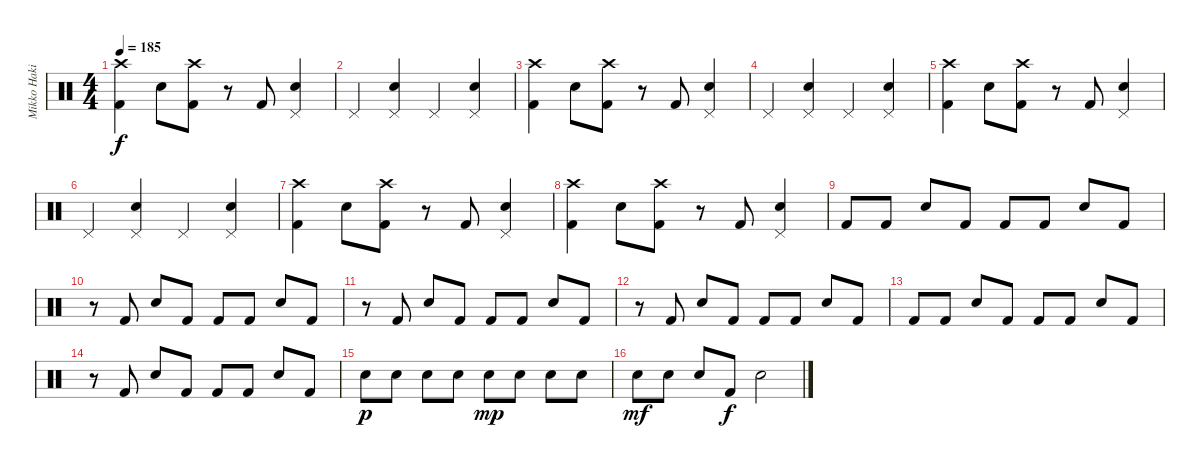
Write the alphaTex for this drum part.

\track ("Mikko Hakila" "Mikko Haki") {instrument percussion}
\staff {score}
\articulation defaults
\ts (4 4)
\tempo 185
\clef neutral
\ks c
("Crash high (hit)" "Kick (hit) 2").4{dy f} "Snare (hit) 2".8 ("Crash high (hit)" "Kick (hit) 2").8 r.8 "Kick (hit) 2".8 ("Pedal Hi-Hat (hit)" "Snare (hit) 2").4 |
"Pedal Hi-Hat (hit)".4 ("Pedal Hi-Hat (hit)" "Snare (hit) 2").4 "Pedal Hi-Hat (hit)".4 ("Pedal Hi-Hat (hit)" "Snare (hit) 2").4 |
("Crash high (hit)" "Kick (hit) 2").4 "Snare (hit) 2".8 ("Crash high (hit)" "Kick (hit) 2").8 r.8 "Kick (hit) 2".8 ("Pedal Hi-Hat (hit)" "Snare (hit) 2").4 |
"Pedal Hi-Hat (hit)".4 ("Pedal Hi-Hat (hit)" "Snare (hit) 2").4 "Pedal Hi-Hat (hit)".4 ("Pedal Hi-Hat (hit)" "Snare (hit) 2").4 |
("Crash high (hit)" "Kick (hit) 2").4 "Snare (hit) 2".8 ("Crash high (hit)" "Kick (hit) 2").8 r.8 "Kick (hit) 2".8 ("Pedal Hi-Hat (hit)" "Snare (hit) 2").4 |
"Pedal Hi-Hat (hit)".4 ("Pedal Hi-Hat (hit)" "Snare (hit) 2").4 "Pedal Hi-Hat (hit)".4 ("Pedal Hi-Hat (hit)" "Snare (hit) 2").4 |
("Crash high (hit)" "Kick (hit) 2").4 "Snare (hit) 2".8 ("Crash high (hit)" "Kick (hit) 2").8 r.8 "Kick (hit) 2".8 ("Pedal Hi-Hat (hit)" "Snare (hit) 2").4 |
("Crash high (hit)" "Kick (hit) 2").4 "Snare (hit) 2".8 ("Crash high (hit)" "Kick (hit) 2").8 r.8 "Kick (hit) 2".8 ("Pedal Hi-Hat (hit)" "Snare (hit) 2").4 |
"Kick (hit) 2".8 "Kick (hit) 2".8 "Snare (hit) 2".8 "Kick (hit) 2".8 "Kick (hit) 2".8 "Kick (hit) 2".8 "Snare (hit) 2".8 "Kick (hit) 2".8 |
r.8 "Kick (hit) 2".8 "Snare (hit) 2".8 "Kick (hit) 2".8 "Kick (hit) 2".8 "Kick (hit) 2".8 "Snare (hit) 2".8 "Kick (hit) 2".8 |
r.8 "Kick (hit) 2".8 "Snare (hit) 2".8 "Kick (hit) 2".8 "Kick (hit) 2".8 "Kick (hit) 2".8 "Snare (hit) 2".8 "Kick (hit) 2".8 |
r.8 "Kick (hit) 2".8 "Snare (hit) 2".8 "Kick (hit) 2".8 "Kick (hit) 2".8 "Kick (hit) 2".8 "Snare (hit) 2".8 "Kick (hit) 2".8 |
"Kick (hit) 2".8 "Kick (hit) 2".8 "Snare (hit) 2".8 "Kick (hit) 2".8 "Kick (hit) 2".8 "Kick (hit) 2".8 "Snare (hit) 2".8 "Kick (hit) 2".8 |
r.8 "Kick (hit) 2".8 "Snare (hit) 2".8 "Kick (hit) 2".8 "Kick (hit) 2".8 "Kick (hit) 2".8 "Snare (hit) 2".8 "Kick (hit) 2".8 |
"Snare (hit) 2".8{dy p} "Snare (hit) 2".8 "Snare (hit) 2".8 "Snare (hit) 2".8 "Snare (hit) 2".8{dy mp} "Snare (hit) 2".8 "Snare (hit) 2".8 "Snare (hit) 2".8 |
"Snare (hit) 2".8{dy mf} "Snare (hit) 2".8 "Snare (hit) 2".8 "Kick (hit) 2".8{dy f} "Snare (hit) 2".2
